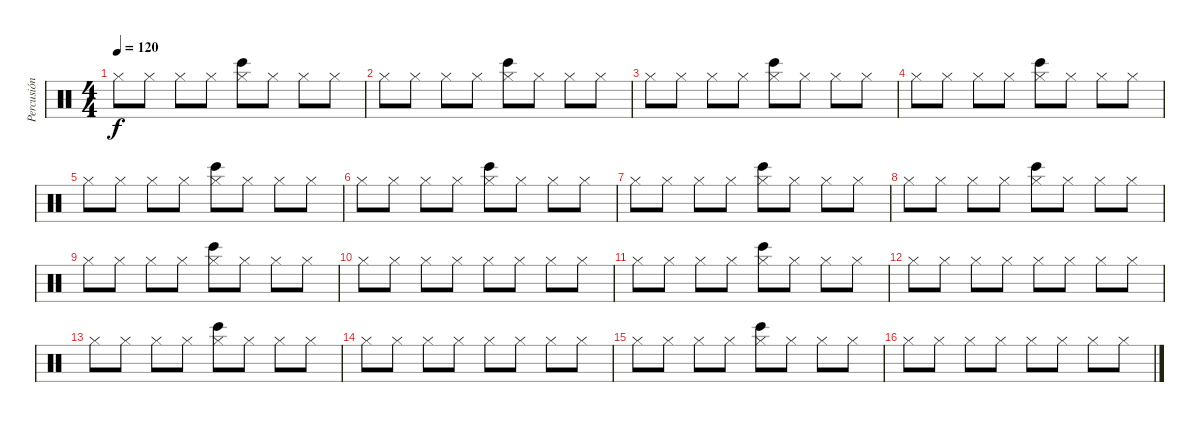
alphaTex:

\track ("Percusión" "Percusión") {instrument percussion}
\staff {score}
\articulation defaults
\ts (4 4)
\tempo 120
\clef neutral
\ks c "Hi-Hat (closed)".8{dy f} "Hi-Hat (closed)".8 "Hi-Hat (closed)".8 "Hi-Hat (closed)".8
("Hi-Hat (closed)" "Bongo High (hit)").8 "Hi-Hat (closed)".8 "Hi-Hat (closed)".8 "Hi-Hat (closed)".8 |
"Hi-Hat (closed)".8 "Hi-Hat (closed)".8 "Hi-Hat (closed)".8 "Hi-Hat (closed)".8 ("Hi-Hat (closed)" "Bongo High (hit)").8 "Hi-Hat (closed)".8 "Hi-Hat (closed)".8 "Hi-Hat (closed)".8 |
"Hi-Hat (closed)".8 "Hi-Hat (closed)".8 "Hi-Hat (closed)".8 "Hi-Hat (closed)".8 ("Hi-Hat (closed)" "Bongo High (hit)").8 "Hi-Hat (closed)".8 "Hi-Hat (closed)".8 "Hi-Hat (closed)".8 |
"Hi-Hat (closed)".8 "Hi-Hat (closed)".8 "Hi-Hat (closed)".8 "Hi-Hat (closed)".8 ("Hi-Hat (closed)" "Bongo High (hit)").8 "Hi-Hat (closed)".8 "Hi-Hat (closed)".8 "Hi-Hat (closed)".8 |
"Hi-Hat (closed)".8 "Hi-Hat (closed)".8 "Hi-Hat (closed)".8 "Hi-Hat (closed)".8 ("Hi-Hat (closed)" "Bongo High (hit)").8 "Hi-Hat (closed)".8 "Hi-Hat (closed)".8 "Hi-Hat (closed)".8 |
"Hi-Hat (closed)".8 "Hi-Hat (closed)".8 "Hi-Hat (closed)".8 "Hi-Hat (closed)".8 ("Hi-Hat (closed)" "Bongo High (hit)").8 "Hi-Hat (closed)".8 "Hi-Hat (closed)".8 "Hi-Hat (closed)".8 |
"Hi-Hat (closed)".8 "Hi-Hat (closed)".8 "Hi-Hat (closed)".8 "Hi-Hat (closed)".8 ("Hi-Hat (closed)" "Bongo High (hit)").8 "Hi-Hat (closed)".8 "Hi-Hat (closed)".8 "Hi-Hat (closed)".8 |
"Hi-Hat (closed)".8 "Hi-Hat (closed)".8 "Hi-Hat (closed)".8 "Hi-Hat (closed)".8 ("Hi-Hat (closed)" "Bongo High (hit)").8 "Hi-Hat (closed)".8 "Hi-Hat (closed)".8 "Hi-Hat (closed)".8 |
"Hi-Hat (closed)".8 "Hi-Hat (closed)".8 "Hi-Hat (closed)".8 "Hi-Hat (closed)".8 ("Hi-Hat (closed)" "Bongo High (hit)").8 "Hi-Hat (closed)".8 "Hi-Hat (closed)".8 "Hi-Hat (closed)".8 |
"Hi-Hat (closed)".8 "Hi-Hat (closed)".8 "Hi-Hat (closed)".8 "Hi-Hat (closed)".8 "Hi-Hat (closed)".8 "Hi-Hat (closed)".8 "Hi-Hat (closed)".8 "Hi-Hat (closed)".8 |
"Hi-Hat (closed)".8 "Hi-Hat (closed)".8 "Hi-Hat (closed)".8 "Hi-Hat (closed)".8 ("Hi-Hat (closed)" "Bongo High (hit)").8 "Hi-Hat (closed)".8 "Hi-Hat (closed)".8 "Hi-Hat (closed)".8 |
"Hi-Hat (closed)".8 "Hi-Hat (closed)".8 "Hi-Hat (closed)".8 "Hi-Hat (closed)".8 "Hi-Hat (closed)".8 "Hi-Hat (closed)".8 "Hi-Hat (closed)".8 "Hi-Hat (closed)".8 |
"Hi-Hat (closed)".8 "Hi-Hat (closed)".8 "Hi-Hat (closed)".8 "Hi-Hat (closed)".8 ("Hi-Hat (closed)" "Bongo High (hit)").8 "Hi-Hat (closed)".8 "Hi-Hat (closed)".8 "Hi-Hat (closed)".8 |
"Hi-Hat (closed)".8 "Hi-Hat (closed)".8 "Hi-Hat (closed)".8 "Hi-Hat (closed)".8 "Hi-Hat (closed)".8 "Hi-Hat (closed)".8 "Hi-Hat (closed)".8 "Hi-Hat (closed)".8 |
"Hi-Hat (closed)".8 "Hi-Hat (closed)".8 "Hi-Hat (closed)".8 "Hi-Hat (closed)".8 ("Hi-Hat (closed)" "Bongo High (hit)").8 "Hi-Hat (closed)".8 "Hi-Hat (closed)".8 "Hi-Hat (closed)".8 |
"Hi-Hat (closed)".8 "Hi-Hat (closed)".8 "Hi-Hat (closed)".8 "Hi-Hat (closed)".8 "Hi-Hat (closed)".8 "Hi-Hat (closed)".8 "Hi-Hat (closed)".8 "Hi-Hat (closed)".8
